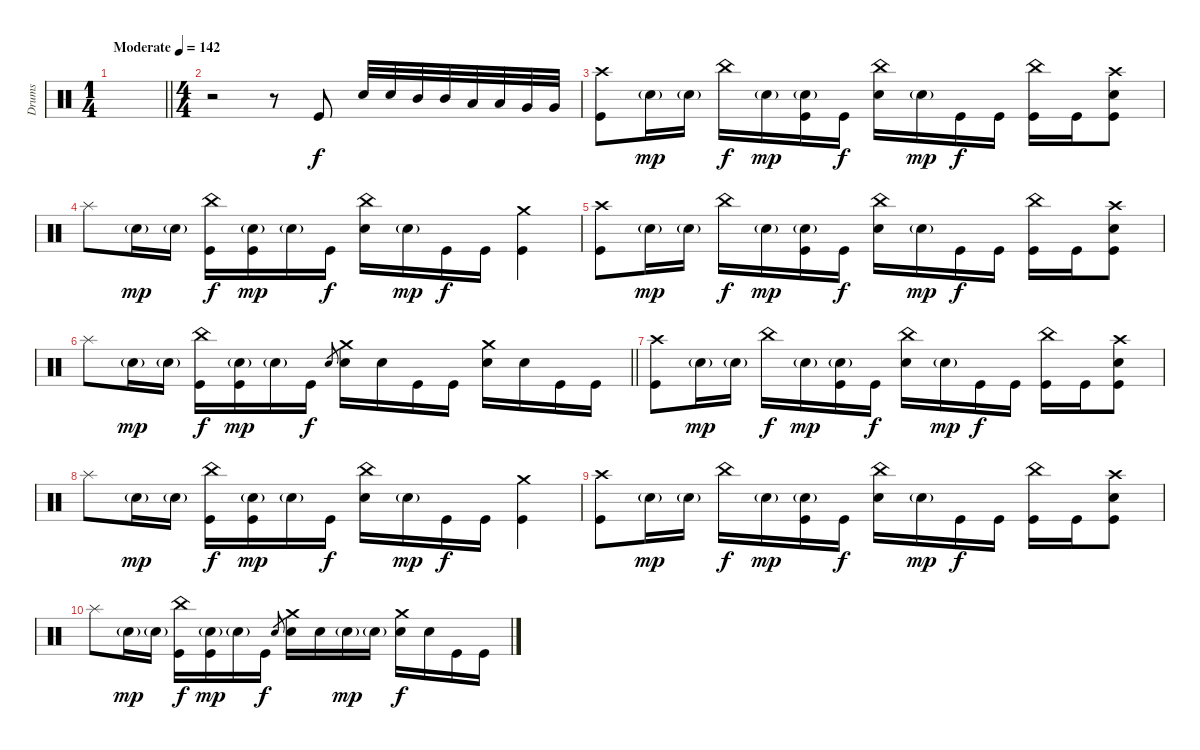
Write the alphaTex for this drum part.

\track ("Drums" "Drums") {instrument percussion}
\staff
\articulation defaults
\ts (1 4)
\tempo (142 "Moderate")
\clef neutral
\barLineRight lightlight
\ks c
|
\ts (4 4)
r.2 r.8 "Kick (hit)".8 "Electric Snare (hit)".32 "Electric Snare (hit)".32 "Mid Tom (hit)".32 "Mid Tom (hit)".32 "Low Tom (hit)".32 "Low Tom (hit)".32 "Very Low Tom (hit)".32 "Very Low Tom (hit)".32 |
("Crash high (hit)" "Kick (hit)").8 "Electric Snare (hit)"{g}.16{dy mp} "Electric Snare (hit)"{g}.16 "China (hit)".16{dy f} "Electric Snare (hit)"{g}.16{dy mp} ("Electric Snare (hit)"{g} "Kick (hit)").16 "Kick (hit)".16{dy f} ("China (hit)" "Electric Snare (hit)").16 "Electric Snare (hit)"{g}.16{dy mp} "Kick (hit)".16{dy f} "Kick (hit)".16 ("China (hit)" "Kick (hit)").16 "Kick (hit)".16 ("Crash high (hit)" "Electric Snare (hit)" "Kick (hit)").8 |
"Splash (hit)".8 "Electric Snare (hit)"{g}.16{dy mp} "Electric Snare (hit)"{g}.16 ("China (hit)" "Kick (hit)").16{dy f} ("Electric Snare (hit)"{g} "Kick (hit)").16{dy mp} "Electric Snare (hit)"{g}.16 "Kick (hit)".16{dy f} ("China (hit)" "Electric Snare (hit)").16 "Electric Snare (hit)"{g}.16{dy mp} "Kick (hit)".16{dy f} "Kick (hit)".16 ("Crash medium (hit)" "Kick (hit)").4 |
("Crash high (hit)" "Kick (hit)").8 "Electric Snare (hit)"{g}.16{dy mp} "Electric Snare (hit)"{g}.16 "China (hit)".16{dy f} "Electric Snare (hit)"{g}.16{dy mp} ("Electric Snare (hit)"{g} "Kick (hit)").16 "Kick (hit)".16{dy f} ("China (hit)" "Electric Snare (hit)").16 "Electric Snare (hit)"{g}.16{dy mp} "Kick (hit)".16{dy f} "Kick (hit)".16 ("China (hit)" "Kick (hit)").16 "Kick (hit)".16 ("Crash high (hit)" "Electric Snare (hit)" "Kick (hit)").8 |
\barLineRight lightlight "Splash (hit)".8 "Electric Snare (hit)"{g}.16{dy mp} "Electric Snare (hit)"{g}.16
("China (hit)" "Kick (hit)").16{dy f} ("Electric Snare (hit)"{g} "Kick (hit)").16{dy mp} "Electric Snare (hit)"{g}.16 "Kick (hit)".16{dy f} "Electric Snare (hit)".8{gr} ("Crash medium (hit)" "Electric Snare (hit)").16 "Electric Snare (hit)".16 "Kick (hit)".16 "Kick (hit)".16 ("Crash medium (hit)" "Electric Snare (hit)").16 "Electric Snare (hit)".16 "Kick (hit)".16 "Kick (hit)".16 |
("Crash high (hit)" "Kick (hit)").8 "Electric Snare (hit)"{g}.16{dy mp} "Electric Snare (hit)"{g}.16 "China (hit)".16{dy f} "Electric Snare (hit)"{g}.16{dy mp} ("Electric Snare (hit)"{g} "Kick (hit)").16 "Kick (hit)".16{dy f} ("China (hit)" "Electric Snare (hit)").16 "Electric Snare (hit)"{g}.16{dy mp} "Kick (hit)".16{dy f} "Kick (hit)".16 ("China (hit)" "Kick (hit)").16 "Kick (hit)".16 ("Crash high (hit)" "Electric Snare (hit)" "Kick (hit)").8 |
"Splash (hit)".8 "Electric Snare (hit)"{g}.16{dy mp} "Electric Snare (hit)"{g}.16 ("China (hit)" "Kick (hit)").16{dy f} ("Electric Snare (hit)"{g} "Kick (hit)").16{dy mp} "Electric Snare (hit)"{g}.16 "Kick (hit)".16{dy f} ("China (hit)" "Electric Snare (hit)").16 "Electric Snare (hit)"{g}.16{dy mp} "Kick (hit)".16{dy f} "Kick (hit)".16 ("Crash medium (hit)" "Kick (hit)").4 |
("Crash high (hit)" "Kick (hit)").8 "Electric Snare (hit)"{g}.16{dy mp} "Electric Snare (hit)"{g}.16 "China (hit)".16{dy f} "Electric Snare (hit)"{g}.16{dy mp} ("Electric Snare (hit)"{g} "Kick (hit)").16 "Kick (hit)".16{dy f} ("China (hit)" "Electric Snare (hit)").16 "Electric Snare (hit)"{g}.16{dy mp} "Kick (hit)".16{dy f} "Kick (hit)".16 ("China (hit)" "Kick (hit)").16 "Kick (hit)".16 ("Crash high (hit)" "Electric Snare (hit)" "Kick (hit)").8 |
"Splash (hit)".8 "Electric Snare (hit)"{g}.16{dy mp} "Electric Snare (hit)"{g}.16 ("China (hit)" "Kick (hit)").16{dy f} ("Electric Snare (hit)"{g} "Kick (hit)").16{dy mp} "Electric Snare (hit)"{g}.16 "Kick (hit)".16{dy f} "Electric Snare (hit)".8{gr} ("Crash medium (hit)" "Electric Snare (hit)").16 "Electric Snare (hit)".16 "Electric Snare (hit)"{g}.16{dy mp} "Electric Snare (hit)"{g}.16 ("Crash medium (hit)" "Electric Snare (hit)").16{dy f} "Electric Snare (hit)".16 "Kick (hit)".16 "Kick (hit)".16
